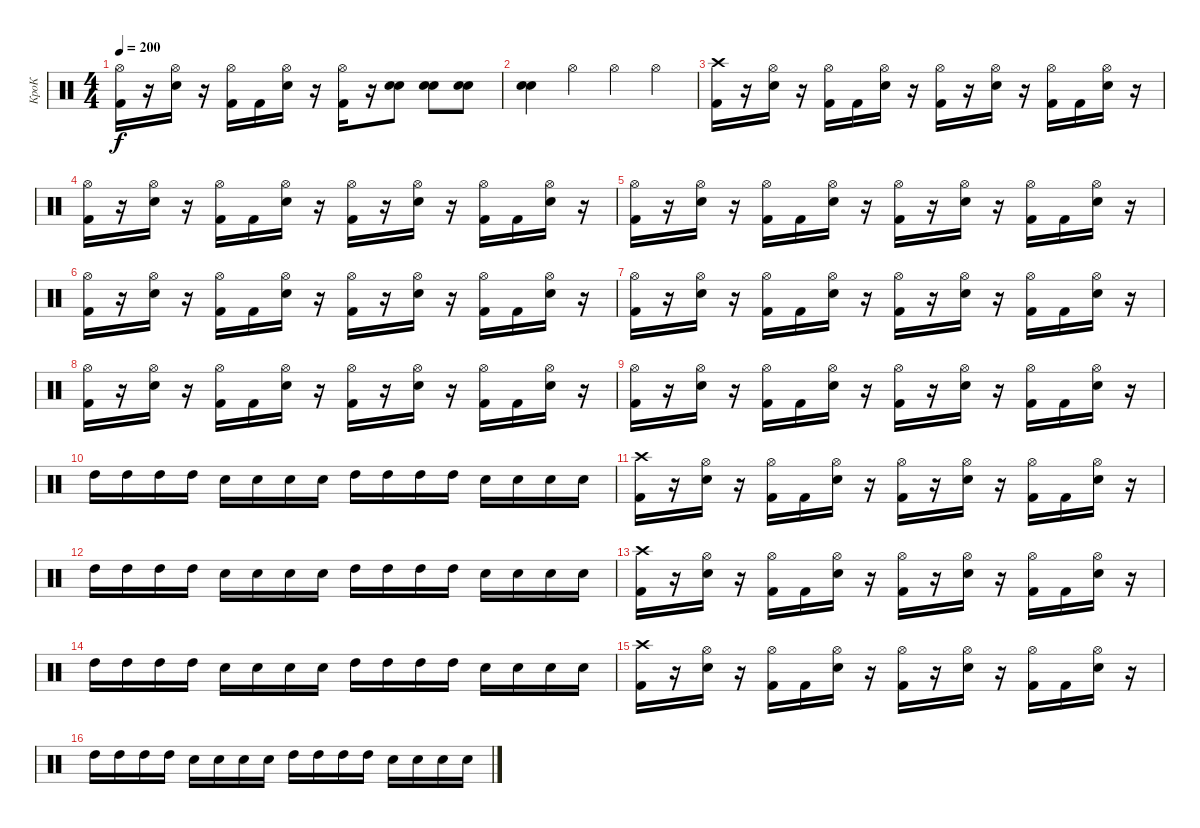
\track ("КроК" "КроК") {instrument percussion}
\staff {score}
\articulation defaults
\ts (4 4)
\tempo 200
\clef neutral
\ks c
("Hi-Hat (open)" "Kick (hit) 2").16{dy f} r.16 ("Hi-Hat (open)" "Electric Snare (hit)").16 r.16 ("Hi-Hat (open)" "Kick (hit) 2").16 "Kick (hit) 2".16 ("Hi-Hat (open)" "Electric Snare (hit)").16 r.16 ("Hi-Hat (open)" "Kick (hit) 2").16 r.16 ("Electric Snare (hit)" "Electric Snare (hit)").8 ("Electric Snare (hit)" "Electric Snare (hit)").8 ("Electric Snare (hit)" "Electric Snare (hit)").8 |
("Electric Snare (hit)" "Electric Snare (hit)").4 "Hi-Hat (open)".4 "Hi-Hat (open)".4 "Hi-Hat (open)".4 |
("Crash high (hit)" "Kick (hit) 2").16 r.16 ("Hi-Hat (open)" "Electric Snare (hit)").16 r.16 ("Hi-Hat (open)" "Kick (hit) 2").16 "Kick (hit) 2".16 ("Hi-Hat (open)" "Electric Snare (hit)").16 r.16 ("Hi-Hat (open)" "Kick (hit) 2").16 r.16 ("Hi-Hat (open)" "Electric Snare (hit)").16 r.16 ("Hi-Hat (open)" "Kick (hit) 2").16 "Kick (hit) 2".16 ("Hi-Hat (open)" "Electric Snare (hit)").16 r.16 |
("Hi-Hat (open)" "Kick (hit) 2").16 r.16 ("Hi-Hat (open)" "Electric Snare (hit)").16 r.16 ("Hi-Hat (open)" "Kick (hit) 2").16 "Kick (hit) 2".16 ("Hi-Hat (open)" "Electric Snare (hit)").16 r.16 ("Hi-Hat (open)" "Kick (hit) 2").16 r.16 ("Hi-Hat (open)" "Electric Snare (hit)").16 r.16 ("Hi-Hat (open)" "Kick (hit) 2").16 "Kick (hit) 2".16 ("Hi-Hat (open)" "Electric Snare (hit)").16 r.16 |
("Hi-Hat (open)" "Kick (hit) 2").16 r.16 ("Hi-Hat (open)" "Electric Snare (hit)").16 r.16 ("Hi-Hat (open)" "Kick (hit) 2").16 "Kick (hit) 2".16 ("Hi-Hat (open)" "Electric Snare (hit)").16 r.16 ("Hi-Hat (open)" "Kick (hit) 2").16 r.16 ("Hi-Hat (open)" "Electric Snare (hit)").16 r.16 ("Hi-Hat (open)" "Kick (hit) 2").16 "Kick (hit) 2".16 ("Hi-Hat (open)" "Electric Snare (hit)").16 r.16 |
("Hi-Hat (open)" "Kick (hit) 2").16 r.16 ("Hi-Hat (open)" "Electric Snare (hit)").16 r.16 ("Hi-Hat (open)" "Kick (hit) 2").16 "Kick (hit) 2".16 ("Hi-Hat (open)" "Electric Snare (hit)").16 r.16 ("Hi-Hat (open)" "Kick (hit) 2").16 r.16 ("Hi-Hat (open)" "Electric Snare (hit)").16 r.16 ("Hi-Hat (open)" "Kick (hit) 2").16 "Kick (hit) 2".16 ("Hi-Hat (open)" "Electric Snare (hit)").16 r.16 |
("Hi-Hat (open)" "Kick (hit) 2").16 r.16 ("Hi-Hat (open)" "Electric Snare (hit)").16 r.16 ("Hi-Hat (open)" "Kick (hit) 2").16 "Kick (hit) 2".16 ("Hi-Hat (open)" "Electric Snare (hit)").16 r.16 ("Hi-Hat (open)" "Kick (hit) 2").16 r.16 ("Hi-Hat (open)" "Electric Snare (hit)").16 r.16 ("Hi-Hat (open)" "Kick (hit) 2").16 "Kick (hit) 2".16 ("Hi-Hat (open)" "Electric Snare (hit)").16 r.16 |
("Hi-Hat (open)" "Kick (hit) 2").16 r.16 ("Hi-Hat (open)" "Electric Snare (hit)").16 r.16 ("Hi-Hat (open)" "Kick (hit) 2").16 "Kick (hit) 2".16 ("Hi-Hat (open)" "Electric Snare (hit)").16 r.16 ("Hi-Hat (open)" "Kick (hit) 2").16 r.16 ("Hi-Hat (open)" "Electric Snare (hit)").16 r.16 ("Hi-Hat (open)" "Kick (hit) 2").16 "Kick (hit) 2".16 ("Hi-Hat (open)" "Electric Snare (hit)").16 r.16 |
("Hi-Hat (open)" "Kick (hit) 2").16 r.16 ("Hi-Hat (open)" "Electric Snare (hit)").16 r.16 ("Hi-Hat (open)" "Kick (hit) 2").16 "Kick (hit) 2".16 ("Hi-Hat (open)" "Electric Snare (hit)").16 r.16 ("Hi-Hat (open)" "Kick (hit) 2").16 r.16 ("Hi-Hat (open)" "Electric Snare (hit)").16 r.16 ("Hi-Hat (open)" "Kick (hit) 2").16 "Kick (hit) 2".16 ("Hi-Hat (open)" "Electric Snare (hit)").16 r.16 |
"High Tom (hit)".16 "High Tom (hit)".16 "High Tom (hit)".16 "High Tom (hit)".16 "Electric Snare (hit)".16 "Electric Snare (hit)".16 "Electric Snare (hit)".16 "Electric Snare (hit)".16 "High Tom (hit)".16 "High Tom (hit)".16 "High Tom (hit)".16 "High Tom (hit)".16 "Electric Snare (hit)".16 "Electric Snare (hit)".16 "Electric Snare (hit)".16 "Electric Snare (hit)".16 |
("Crash high (hit)" "Kick (hit) 2").16 r.16 ("Hi-Hat (open)" "Electric Snare (hit)").16 r.16 ("Hi-Hat (open)" "Kick (hit) 2").16 "Kick (hit) 2".16 ("Hi-Hat (open)" "Electric Snare (hit)").16 r.16 ("Hi-Hat (open)" "Kick (hit) 2").16 r.16 ("Hi-Hat (open)" "Electric Snare (hit)").16 r.16 ("Hi-Hat (open)" "Kick (hit) 2").16 "Kick (hit) 2".16 ("Hi-Hat (open)" "Electric Snare (hit)").16 r.16 |
"High Tom (hit)".16 "High Tom (hit)".16 "High Tom (hit)".16 "High Tom (hit)".16 "Electric Snare (hit)".16 "Electric Snare (hit)".16 "Electric Snare (hit)".16 "Electric Snare (hit)".16 "High Tom (hit)".16 "High Tom (hit)".16 "High Tom (hit)".16 "High Tom (hit)".16 "Electric Snare (hit)".16 "Electric Snare (hit)".16 "Electric Snare (hit)".16 "Electric Snare (hit)".16 |
("Crash high (hit)" "Kick (hit) 2").16 r.16 ("Hi-Hat (open)" "Electric Snare (hit)").16 r.16 ("Hi-Hat (open)" "Kick (hit) 2").16 "Kick (hit) 2".16 ("Hi-Hat (open)" "Electric Snare (hit)").16 r.16 ("Hi-Hat (open)" "Kick (hit) 2").16 r.16 ("Hi-Hat (open)" "Electric Snare (hit)").16 r.16 ("Hi-Hat (open)" "Kick (hit) 2").16 "Kick (hit) 2".16 ("Hi-Hat (open)" "Electric Snare (hit)").16 r.16 |
"High Tom (hit)".16 "High Tom (hit)".16 "High Tom (hit)".16 "High Tom (hit)".16 "Electric Snare (hit)".16 "Electric Snare (hit)".16 "Electric Snare (hit)".16 "Electric Snare (hit)".16 "High Tom (hit)".16 "High Tom (hit)".16 "High Tom (hit)".16 "High Tom (hit)".16 "Electric Snare (hit)".16 "Electric Snare (hit)".16 "Electric Snare (hit)".16 "Electric Snare (hit)".16 |
("Crash high (hit)" "Kick (hit) 2").16 r.16 ("Hi-Hat (open)" "Electric Snare (hit)").16 r.16 ("Hi-Hat (open)" "Kick (hit) 2").16 "Kick (hit) 2".16 ("Hi-Hat (open)" "Electric Snare (hit)").16 r.16 ("Hi-Hat (open)" "Kick (hit) 2").16 r.16 ("Hi-Hat (open)" "Electric Snare (hit)").16 r.16 ("Hi-Hat (open)" "Kick (hit) 2").16 "Kick (hit) 2".16 ("Hi-Hat (open)" "Electric Snare (hit)").16 r.16 |
"High Tom (hit)".16 "High Tom (hit)".16 "High Tom (hit)".16 "High Tom (hit)".16 "Electric Snare (hit)".16 "Electric Snare (hit)".16 "Electric Snare (hit)".16 "Electric Snare (hit)".16 "High Tom (hit)".16 "High Tom (hit)".16 "High Tom (hit)".16 "High Tom (hit)".16 "Electric Snare (hit)".16 "Electric Snare (hit)".16 "Electric Snare (hit)".16 "Electric Snare (hit)".16
